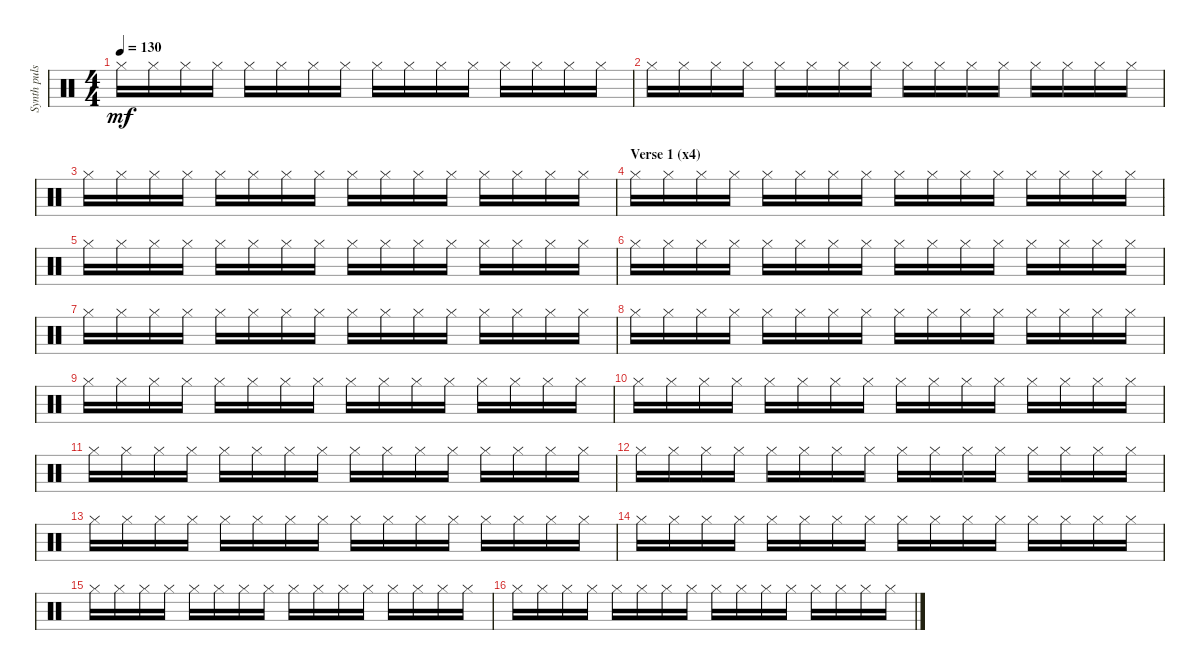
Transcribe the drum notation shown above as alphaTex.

\track ("Synth pulse perc" "Synth puls") {instrument percussion}
\staff {score}
\articulation defaults
\ts (4 4)
\tempo 130
\clef neutral
\ks c "Hi-Hat (closed)".16{dy mf} "Hi-Hat (closed)".16 "Hi-Hat (closed)".16 "Hi-Hat (closed)".16 "Hi-Hat (closed)".16 "Hi-Hat (closed)".16 "Hi-Hat (closed)".16 "Hi-Hat (closed)".16 "Hi-Hat (closed)".16 "Hi-Hat (closed)".16 "Hi-Hat (closed)".16 "Hi-Hat (closed)".16 "Hi-Hat (closed)".16 "Hi-Hat (closed)".16 "Hi-Hat (closed)".16 "Hi-Hat (closed)".16
|
"Hi-Hat (closed)".16 "Hi-Hat (closed)".16 "Hi-Hat (closed)".16 "Hi-Hat (closed)".16 "Hi-Hat (closed)".16 "Hi-Hat (closed)".16 "Hi-Hat (closed)".16 "Hi-Hat (closed)".16 "Hi-Hat (closed)".16 "Hi-Hat (closed)".16 "Hi-Hat (closed)".16 "Hi-Hat (closed)".16 "Hi-Hat (closed)".16 "Hi-Hat (closed)".16 "Hi-Hat (closed)".16 "Hi-Hat (closed)".16 |
"Hi-Hat (closed)".16 "Hi-Hat (closed)".16 "Hi-Hat (closed)".16 "Hi-Hat (closed)".16 "Hi-Hat (closed)".16 "Hi-Hat (closed)".16 "Hi-Hat (closed)".16 "Hi-Hat (closed)".16 "Hi-Hat (closed)".16 "Hi-Hat (closed)".16 "Hi-Hat (closed)".16 "Hi-Hat (closed)".16 "Hi-Hat (closed)".16 "Hi-Hat (closed)".16 "Hi-Hat (closed)".16 "Hi-Hat (closed)".16 |
\section ("" "Verse 1 (x4)")
"Hi-Hat (closed)".16 "Hi-Hat (closed)".16 "Hi-Hat (closed)".16 "Hi-Hat (closed)".16 "Hi-Hat (closed)".16 "Hi-Hat (closed)".16 "Hi-Hat (closed)".16 "Hi-Hat (closed)".16 "Hi-Hat (closed)".16 "Hi-Hat (closed)".16 "Hi-Hat (closed)".16 "Hi-Hat (closed)".16 "Hi-Hat (closed)".16 "Hi-Hat (closed)".16 "Hi-Hat (closed)".16 "Hi-Hat (closed)".16 |
"Hi-Hat (closed)".16 "Hi-Hat (closed)".16 "Hi-Hat (closed)".16 "Hi-Hat (closed)".16 "Hi-Hat (closed)".16 "Hi-Hat (closed)".16 "Hi-Hat (closed)".16 "Hi-Hat (closed)".16 "Hi-Hat (closed)".16 "Hi-Hat (closed)".16 "Hi-Hat (closed)".16 "Hi-Hat (closed)".16 "Hi-Hat (closed)".16 "Hi-Hat (closed)".16 "Hi-Hat (closed)".16 "Hi-Hat (closed)".16 |
"Hi-Hat (closed)".16 "Hi-Hat (closed)".16 "Hi-Hat (closed)".16 "Hi-Hat (closed)".16 "Hi-Hat (closed)".16 "Hi-Hat (closed)".16 "Hi-Hat (closed)".16 "Hi-Hat (closed)".16 "Hi-Hat (closed)".16 "Hi-Hat (closed)".16 "Hi-Hat (closed)".16 "Hi-Hat (closed)".16 "Hi-Hat (closed)".16 "Hi-Hat (closed)".16 "Hi-Hat (closed)".16 "Hi-Hat (closed)".16 |
"Hi-Hat (closed)".16 "Hi-Hat (closed)".16 "Hi-Hat (closed)".16 "Hi-Hat (closed)".16 "Hi-Hat (closed)".16 "Hi-Hat (closed)".16 "Hi-Hat (closed)".16 "Hi-Hat (closed)".16 "Hi-Hat (closed)".16 "Hi-Hat (closed)".16 "Hi-Hat (closed)".16 "Hi-Hat (closed)".16 "Hi-Hat (closed)".16 "Hi-Hat (closed)".16 "Hi-Hat (closed)".16 "Hi-Hat (closed)".16 |
"Hi-Hat (closed)".16 "Hi-Hat (closed)".16 "Hi-Hat (closed)".16 "Hi-Hat (closed)".16 "Hi-Hat (closed)".16 "Hi-Hat (closed)".16 "Hi-Hat (closed)".16 "Hi-Hat (closed)".16 "Hi-Hat (closed)".16 "Hi-Hat (closed)".16 "Hi-Hat (closed)".16 "Hi-Hat (closed)".16 "Hi-Hat (closed)".16 "Hi-Hat (closed)".16 "Hi-Hat (closed)".16 "Hi-Hat (closed)".16 |
"Hi-Hat (closed)".16 "Hi-Hat (closed)".16 "Hi-Hat (closed)".16 "Hi-Hat (closed)".16 "Hi-Hat (closed)".16 "Hi-Hat (closed)".16 "Hi-Hat (closed)".16 "Hi-Hat (closed)".16 "Hi-Hat (closed)".16 "Hi-Hat (closed)".16 "Hi-Hat (closed)".16 "Hi-Hat (closed)".16 "Hi-Hat (closed)".16 "Hi-Hat (closed)".16 "Hi-Hat (closed)".16 "Hi-Hat (closed)".16 |
"Hi-Hat (closed)".16 "Hi-Hat (closed)".16 "Hi-Hat (closed)".16 "Hi-Hat (closed)".16 "Hi-Hat (closed)".16 "Hi-Hat (closed)".16 "Hi-Hat (closed)".16 "Hi-Hat (closed)".16 "Hi-Hat (closed)".16 "Hi-Hat (closed)".16 "Hi-Hat (closed)".16 "Hi-Hat (closed)".16 "Hi-Hat (closed)".16 "Hi-Hat (closed)".16 "Hi-Hat (closed)".16 "Hi-Hat (closed)".16 |
"Hi-Hat (closed)".16 "Hi-Hat (closed)".16 "Hi-Hat (closed)".16 "Hi-Hat (closed)".16 "Hi-Hat (closed)".16 "Hi-Hat (closed)".16 "Hi-Hat (closed)".16 "Hi-Hat (closed)".16 "Hi-Hat (closed)".16 "Hi-Hat (closed)".16 "Hi-Hat (closed)".16 "Hi-Hat (closed)".16 "Hi-Hat (closed)".16 "Hi-Hat (closed)".16 "Hi-Hat (closed)".16 "Hi-Hat (closed)".16 |
"Hi-Hat (closed)".16 "Hi-Hat (closed)".16 "Hi-Hat (closed)".16 "Hi-Hat (closed)".16 "Hi-Hat (closed)".16 "Hi-Hat (closed)".16 "Hi-Hat (closed)".16 "Hi-Hat (closed)".16 "Hi-Hat (closed)".16 "Hi-Hat (closed)".16 "Hi-Hat (closed)".16 "Hi-Hat (closed)".16 "Hi-Hat (closed)".16 "Hi-Hat (closed)".16 "Hi-Hat (closed)".16 "Hi-Hat (closed)".16 |
"Hi-Hat (closed)".16 "Hi-Hat (closed)".16 "Hi-Hat (closed)".16 "Hi-Hat (closed)".16 "Hi-Hat (closed)".16 "Hi-Hat (closed)".16 "Hi-Hat (closed)".16 "Hi-Hat (closed)".16 "Hi-Hat (closed)".16 "Hi-Hat (closed)".16 "Hi-Hat (closed)".16 "Hi-Hat (closed)".16 "Hi-Hat (closed)".16 "Hi-Hat (closed)".16 "Hi-Hat (closed)".16 "Hi-Hat (closed)".16 |
"Hi-Hat (closed)".16 "Hi-Hat (closed)".16 "Hi-Hat (closed)".16 "Hi-Hat (closed)".16 "Hi-Hat (closed)".16 "Hi-Hat (closed)".16 "Hi-Hat (closed)".16 "Hi-Hat (closed)".16 "Hi-Hat (closed)".16 "Hi-Hat (closed)".16 "Hi-Hat (closed)".16 "Hi-Hat (closed)".16 "Hi-Hat (closed)".16 "Hi-Hat (closed)".16 "Hi-Hat (closed)".16 "Hi-Hat (closed)".16 |
"Hi-Hat (closed)".16 "Hi-Hat (closed)".16 "Hi-Hat (closed)".16 "Hi-Hat (closed)".16 "Hi-Hat (closed)".16 "Hi-Hat (closed)".16 "Hi-Hat (closed)".16 "Hi-Hat (closed)".16 "Hi-Hat (closed)".16 "Hi-Hat (closed)".16 "Hi-Hat (closed)".16 "Hi-Hat (closed)".16 "Hi-Hat (closed)".16 "Hi-Hat (closed)".16 "Hi-Hat (closed)".16 "Hi-Hat (closed)".16 |
"Hi-Hat (closed)".16 "Hi-Hat (closed)".16 "Hi-Hat (closed)".16 "Hi-Hat (closed)".16 "Hi-Hat (closed)".16 "Hi-Hat (closed)".16 "Hi-Hat (closed)".16 "Hi-Hat (closed)".16 "Hi-Hat (closed)".16 "Hi-Hat (closed)".16 "Hi-Hat (closed)".16 "Hi-Hat (closed)".16 "Hi-Hat (closed)".16 "Hi-Hat (closed)".16 "Hi-Hat (closed)".16 "Hi-Hat (closed)".16
